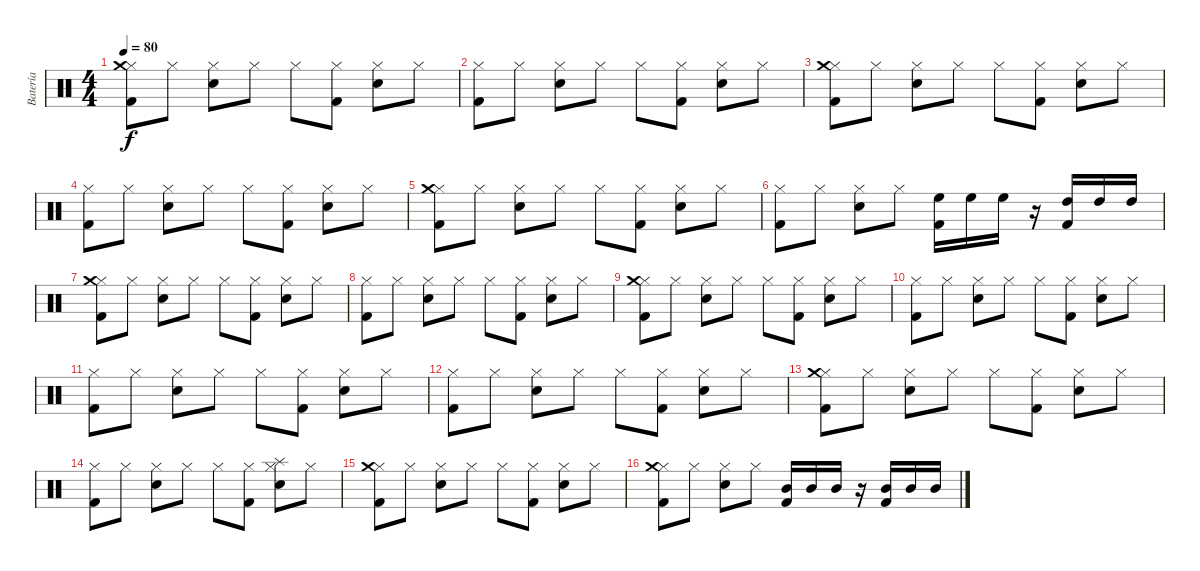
\track ("Batería" "Batería") {instrument percussion}
\staff {score}
\articulation defaults
\ts (4 4)
\tempo 80
\clef neutral
\ks c
("Hi-Hat (closed)" "Kick (hit) 2" "Crash medium (hit)").8{dy f} "Hi-Hat (closed)".8 ("Hi-Hat (closed)" "Snare (hit) 2").8 "Hi-Hat (closed)".8 "Hi-Hat (closed)".8 ("Hi-Hat (closed)" "Kick (hit) 2").8 ("Hi-Hat (closed)" "Snare (hit) 2").8 "Hi-Hat (closed)".8 |
("Hi-Hat (closed)" "Kick (hit) 2").8 "Hi-Hat (closed)".8 ("Hi-Hat (closed)" "Snare (hit) 2").8 "Hi-Hat (closed)".8 "Hi-Hat (closed)".8 ("Hi-Hat (closed)" "Kick (hit) 2").8 ("Hi-Hat (closed)" "Snare (hit) 2").8 "Hi-Hat (closed)".8 |
("Hi-Hat (closed)" "Kick (hit) 2" "Crash medium (hit)").8 "Hi-Hat (closed)".8 ("Hi-Hat (closed)" "Snare (hit) 2").8 "Hi-Hat (closed)".8 "Hi-Hat (closed)".8 ("Hi-Hat (closed)" "Kick (hit) 2").8 ("Hi-Hat (closed)" "Snare (hit) 2").8 "Hi-Hat (closed)".8 |
("Hi-Hat (closed)" "Kick (hit) 2").8 "Hi-Hat (closed)".8 ("Hi-Hat (closed)" "Snare (hit) 2").8 "Hi-Hat (closed)".8 "Hi-Hat (closed)".8 ("Hi-Hat (closed)" "Kick (hit) 2").8 ("Hi-Hat (closed)" "Snare (hit) 2").8 "Hi-Hat (closed)".8 |
("Hi-Hat (closed)" "Kick (hit) 2" "Crash medium (hit)").8 "Hi-Hat (closed)".8 ("Hi-Hat (closed)" "Snare (hit) 2").8 "Hi-Hat (closed)".8 "Hi-Hat (closed)".8 ("Hi-Hat (closed)" "Kick (hit) 2").8 ("Hi-Hat (closed)" "Snare (hit) 2").8 "Hi-Hat (closed)".8 |
("Hi-Hat (closed)" "Kick (hit) 2").8 "Hi-Hat (closed)".8 ("Hi-Hat (closed)" "Snare (hit) 2").8 "Hi-Hat (closed)".8 ("High Floor Tom (hit)" "Kick (hit) 2").16 "High Floor Tom (hit)".16 "High Floor Tom (hit)".16 r.16 ("High Tom (hit)" "Kick (hit) 2").16 "High Tom (hit)".16 "High Tom (hit)".16 |
("Hi-Hat (closed)" "Kick (hit) 2" "Crash medium (hit)").8 "Hi-Hat (closed)".8 ("Hi-Hat (closed)" "Snare (hit) 2").8 "Hi-Hat (closed)".8 "Hi-Hat (closed)".8 ("Hi-Hat (closed)" "Kick (hit) 2").8 ("Hi-Hat (closed)" "Snare (hit) 2").8 "Hi-Hat (closed)".8 |
("Hi-Hat (closed)" "Kick (hit) 2").8 "Hi-Hat (closed)".8 ("Hi-Hat (closed)" "Snare (hit) 2").8 "Hi-Hat (closed)".8 "Hi-Hat (closed)".8 ("Hi-Hat (closed)" "Kick (hit) 2").8 ("Hi-Hat (closed)" "Snare (hit) 2").8 "Hi-Hat (closed)".8 |
("Hi-Hat (closed)" "Kick (hit) 2" "Crash medium (hit)").8 "Hi-Hat (closed)".8 ("Hi-Hat (closed)" "Snare (hit) 2").8 "Hi-Hat (closed)".8 "Hi-Hat (closed)".8 ("Hi-Hat (closed)" "Kick (hit) 2").8 ("Hi-Hat (closed)" "Snare (hit) 2").8 "Hi-Hat (closed)".8 |
("Hi-Hat (closed)" "Kick (hit) 2").8 "Hi-Hat (closed)".8 ("Hi-Hat (closed)" "Snare (hit) 2").8 "Hi-Hat (closed)".8 "Hi-Hat (closed)".8 ("Hi-Hat (closed)" "Kick (hit) 2").8 ("Hi-Hat (closed)" "Snare (hit) 2").8 "Hi-Hat (closed)".8 |
("Hi-Hat (closed)" "Kick (hit) 2").8 "Hi-Hat (closed)".8 ("Hi-Hat (closed)" "Snare (hit) 2").8 "Hi-Hat (closed)".8 "Hi-Hat (closed)".8 ("Hi-Hat (closed)" "Kick (hit) 2").8 ("Hi-Hat (closed)" "Snare (hit) 2").8 "Hi-Hat (closed)".8 |
("Hi-Hat (closed)" "Kick (hit) 2").8 "Hi-Hat (closed)".8 ("Hi-Hat (closed)" "Snare (hit) 2").8 "Hi-Hat (closed)".8 "Hi-Hat (closed)".8 ("Hi-Hat (closed)" "Kick (hit) 2").8 ("Hi-Hat (closed)" "Snare (hit) 2").8 "Hi-Hat (closed)".8 |
("Hi-Hat (closed)" "Kick (hit) 2" "Crash medium (hit)").8 "Hi-Hat (closed)".8 ("Hi-Hat (closed)" "Snare (hit) 2").8 "Hi-Hat (closed)".8 "Hi-Hat (closed)".8 ("Hi-Hat (closed)" "Kick (hit) 2").8 ("Hi-Hat (closed)" "Snare (hit) 2").8 "Hi-Hat (closed)".8 |
("Hi-Hat (closed)" "Kick (hit) 2").8 "Hi-Hat (closed)".8 ("Hi-Hat (closed)" "Snare (hit) 2").8 "Hi-Hat (closed)".8 "Hi-Hat (closed)".8 ("Hi-Hat (closed)" "Kick (hit) 2").8 ("Hi-Hat (closed)" "Snare (hit) 2" "Splash (hit)").8 "Hi-Hat (closed)".8 |
("Hi-Hat (closed)" "Kick (hit) 2" "Crash medium (hit)").8 "Hi-Hat (closed)".8 ("Hi-Hat (closed)" "Snare (hit) 2").8 "Hi-Hat (closed)".8 "Hi-Hat (closed)".8 ("Hi-Hat (closed)" "Kick (hit) 2").8 ("Hi-Hat (closed)" "Snare (hit) 2").8 "Hi-Hat (closed)".8 |
("Hi-Hat (closed)" "Kick (hit) 2" "Crash medium (hit)").8 "Hi-Hat (closed)".8 ("Hi-Hat (closed)" "Snare (hit) 2").8 "Hi-Hat (closed)".8 ("Mid Tom (hit)" "Kick (hit) 2").16 "Mid Tom (hit)".16 "Mid Tom (hit)".16 r.16 ("Mid Tom (hit)" "Kick (hit) 2").16 "Mid Tom (hit)".16 "Mid Tom (hit)".16
